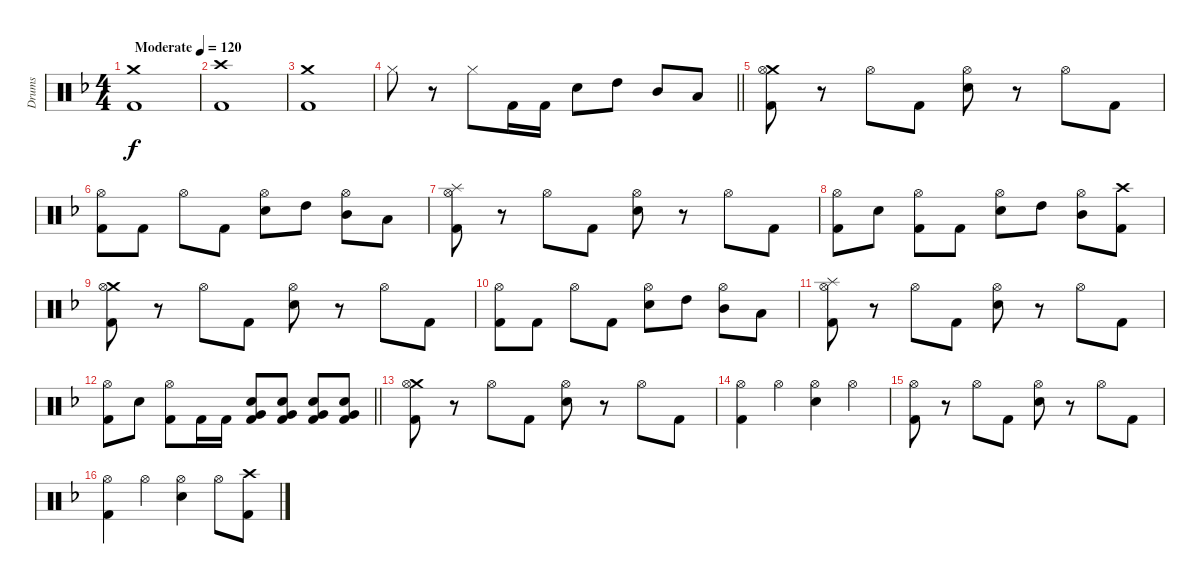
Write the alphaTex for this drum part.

\track ("Drums" "Drums") {instrument percussion}
\staff {score}
\articulation defaults
\ts (4 4)
\section ("" "")
\tempo (120 "Moderate")
\clef neutral
\ks dminor
("Crash medium (hit)" "Kick (hit) 2").1{dy f} |
("Crash high (hit)" "Kick (hit) 2").1 |
("Crash medium (hit)" "Kick (hit) 2").1 |
\barLineRight lightlight "Hi-Hat (closed)".8
r.8 "Hi-Hat (closed)".8 "Kick (hit) 2".16 "Kick (hit) 2".16 "Electric Snare (hit)".8 "High Tom (hit)".8 "Mid Tom (hit)".8 "Low Tom (hit)".8 |
\section ("" "")
("Crash medium (hit)" "Hi-Hat (open)" "Kick (hit) 2").8 r.8 "Hi-Hat (open)".8 "Kick (hit) 2".8 ("Hi-Hat (open)" "Electric Snare (hit)").8 r.8 "Hi-Hat (open)".8 "Kick (hit) 2".8 |
("Hi-Hat (open)" "Kick (hit) 2").8 "Kick (hit) 2".8 "Hi-Hat (open)".8 "Kick (hit) 2".8 ("Hi-Hat (open)" "Electric Snare (hit)").8 "High Tom (hit)".8 ("Hi-Hat (open)" "Mid Tom (hit)").8 "Low Tom (hit)".8 |
("Splash (hit)" "Hi-Hat (open)" "Kick (hit) 2").8 r.8 "Hi-Hat (open)".8 "Kick (hit) 2".8 ("Hi-Hat (open)" "Electric Snare (hit)").8 r.8 "Hi-Hat (open)".8 "Kick (hit) 2".8 |
("Hi-Hat (open)" "Kick (hit) 2").8 "Electric Snare (hit)".8 ("Hi-Hat (open)" "Kick (hit) 2").8 "Kick (hit) 2".8 ("Hi-Hat (open)" "Electric Snare (hit)").8 "High Tom (hit)".8 ("Hi-Hat (open)" "Mid Tom (hit)").8 ("Crash high (hit)" "Kick (hit) 2").8 |
("Crash medium (hit)" "Hi-Hat (open)" "Kick (hit) 2").8 r.8 "Hi-Hat (open)".8 "Kick (hit) 2".8 ("Hi-Hat (open)" "Electric Snare (hit)").8 r.8 "Hi-Hat (open)".8 "Kick (hit) 2".8 |
("Hi-Hat (open)" "Kick (hit) 2").8 "Kick (hit) 2".8 "Hi-Hat (open)".8 "Kick (hit) 2".8 ("Hi-Hat (open)" "Electric Snare (hit)").8 "High Tom (hit)".8 ("Hi-Hat (open)" "Mid Tom (hit)").8 "Low Tom (hit)".8 |
("Splash (hit)" "Hi-Hat (open)" "Kick (hit) 2").8 r.8 "Hi-Hat (open)".8 "Kick (hit) 2".8 ("Hi-Hat (open)" "Electric Snare (hit)").8 r.8 "Hi-Hat (open)".8 "Kick (hit) 2".8 |
\barLineRight lightlight
("Hi-Hat (open)" "Kick (hit) 2").8 "Electric Snare (hit)".8 ("Hi-Hat (open)" "Kick (hit) 2").8 "Kick (hit) 2".16 "Kick (hit) 2".16 ("Very Low Tom (hit)" "Electric Snare (hit)" "Kick (hit) 2").8 ("Very Low Tom (hit)" "Electric Snare (hit)" "Kick (hit) 2").8 ("Very Low Tom (hit)" "Electric Snare (hit)" "Kick (hit) 2").8 ("Very Low Tom (hit)" "Electric Snare (hit)" "Kick (hit) 2").8 |
\section ("" "")
("Crash medium (hit)" "Hi-Hat (open)" "Kick (hit) 2").8 r.8 "Hi-Hat (open)".8 "Kick (hit) 2".8 ("Hi-Hat (open)" "Electric Snare (hit)").8 r.8 "Hi-Hat (open)".8 "Kick (hit) 2".8 |
("Hi-Hat (open)" "Kick (hit) 2").4 "Hi-Hat (open)".4 ("Hi-Hat (open)" "Electric Snare (hit)").4 "Hi-Hat (open)".4 |
("Hi-Hat (open)" "Kick (hit) 2").8 r.8 "Hi-Hat (open)".8 "Kick (hit) 2".8 ("Hi-Hat (open)" "Electric Snare (hit)").8 r.8 "Hi-Hat (open)".8 "Kick (hit) 2".8 |
("Hi-Hat (open)" "Kick (hit) 2").4 "Hi-Hat (open)".4 ("Hi-Hat (open)" "Electric Snare (hit)").4 "Hi-Hat (open)".8 ("Crash high (hit)" "Kick (hit) 2").8
